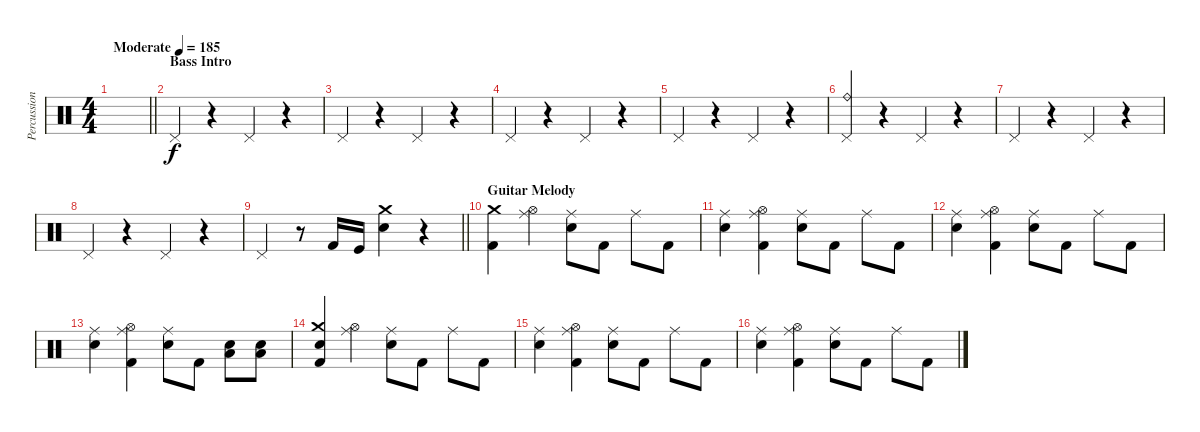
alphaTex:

\track ("Percussion" "Percussion") {instrument percussion}
\staff {score}
\articulation defaults
\ts (4 4)
\tempo (185 "Moderate")
\clef neutral
\barLineRight lightlight
\ks c
|
\section ("" "Bass Intro")
"Pedal Hi-Hat (hit)".4 r.4 "Pedal Hi-Hat (hit)".4 r.4 |
"Pedal Hi-Hat (hit)".4 r.4 "Pedal Hi-Hat (hit)".4 r.4 |
"Pedal Hi-Hat (hit)".4 r.4 "Pedal Hi-Hat (hit)".4 r.4 |
"Pedal Hi-Hat (hit)".4 r.4 "Pedal Hi-Hat (hit)".4 r.4 |
("Ride (bell)" "Pedal Hi-Hat (hit)").4 r.4 "Pedal Hi-Hat (hit)".4 r.4 |
"Pedal Hi-Hat (hit)".4 r.4 "Pedal Hi-Hat (hit)".4 r.4 |
"Pedal Hi-Hat (hit)".4 r.4 "Pedal Hi-Hat (hit)".4 r.4 |
\barLineRight lightlight "Pedal Hi-Hat (hit)".4
r.8 "Kick (hit) 2".16 "Kick (hit)".16 ("Crash medium (hit)" "Electric Snare (hit)").4 r.4 |
\section ("" "Guitar Melody")
("Crash medium (hit)" "Kick (hit) 2").4 ("Hi-Hat (open)" "Ride (middle)").4 ("Ride (middle)" "Electric Snare (hit)").8 "Kick (hit) 2".8 "Ride (middle)".8 "Kick (hit) 2".8 |
("Ride (middle)" "Electric Snare (hit)").4 ("Hi-Hat (open)" "Ride (middle)" "Kick (hit) 2").4 ("Ride (middle)" "Electric Snare (hit)").8 "Kick (hit) 2".8 "Ride (middle)".8 "Kick (hit) 2".8 |
("Ride (middle)" "Electric Snare (hit)").4 ("Hi-Hat (open)" "Ride (middle)" "Kick (hit) 2").4 ("Ride (middle)" "Electric Snare (hit)").8 "Kick (hit) 2".8 "Ride (middle)".8 "Kick (hit) 2".8 |
("Ride (middle)" "Electric Snare (hit)").4 ("Hi-Hat (open)" "Ride (middle)" "Kick (hit) 2").4 ("Ride (middle)" "Electric Snare (hit)").8 "Kick (hit) 2".8 ("Low Floor Tom (hit)" "Electric Snare (hit)").8 ("Low Floor Tom (hit)" "Electric Snare (hit)").8 |
("Crash medium (hit)" "Electric Snare (hit)" "Kick (hit) 2").4 ("Hi-Hat (open)" "Ride (middle)").4 ("Ride (middle)" "Electric Snare (hit)").8 "Kick (hit) 2".8 "Ride (middle)".8 "Kick (hit) 2".8 |
("Ride (middle)" "Electric Snare (hit)").4 ("Hi-Hat (open)" "Ride (middle)" "Kick (hit) 2").4 ("Ride (middle)" "Electric Snare (hit)").8 "Kick (hit) 2".8 "Ride (middle)".8 "Kick (hit) 2".8 |
("Ride (middle)" "Electric Snare (hit)").4 ("Hi-Hat (open)" "Ride (middle)" "Kick (hit) 2").4 ("Ride (middle)" "Electric Snare (hit)").8 "Kick (hit) 2".8 "Ride (middle)".8 "Kick (hit) 2".8
